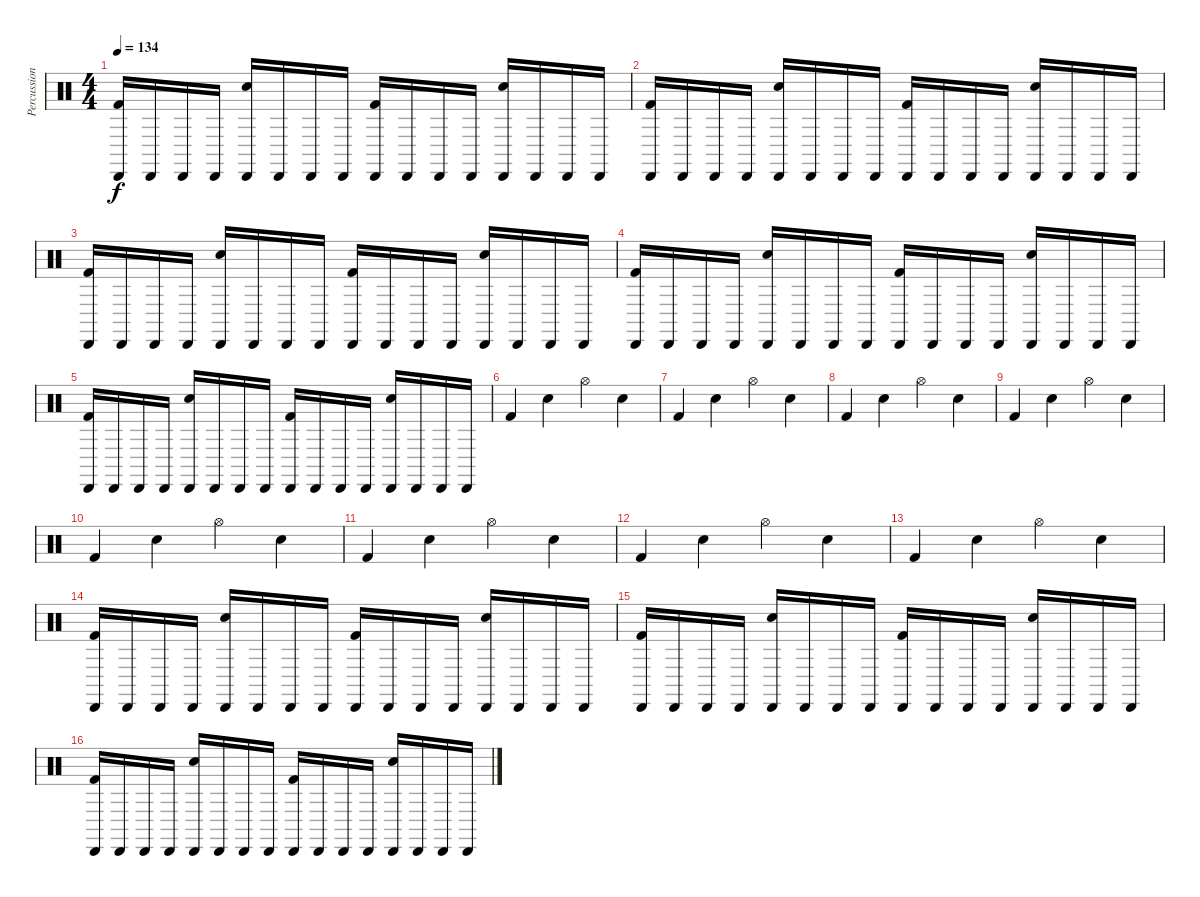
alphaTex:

\track ("Percussion" "Percussion") {instrument percussion}
\staff {score}
\articulation defaults
\ts (4 4)
\tempo 134
\clef neutral
\ks c
("Cabasa (hit)" "Kick (hit) 2").16{dy f} "Cabasa (hit)".16 "Cabasa (hit)".16 "Cabasa (hit)".16 ("Cabasa (hit)" "Snare (hit) 2").16 "Cabasa (hit)".16 "Cabasa (hit)".16 "Cabasa (hit)".16 ("Cabasa (hit)" "Kick (hit) 2").16 "Cabasa (hit)".16 "Cabasa (hit)".16 "Cabasa (hit)".16 ("Cabasa (hit)" "Snare (hit) 2").16 "Cabasa (hit)".16 "Cabasa (hit)".16 "Cabasa (hit)".16 |
("Cabasa (hit)" "Kick (hit) 2").16 "Cabasa (hit)".16 "Cabasa (hit)".16 "Cabasa (hit)".16 ("Cabasa (hit)" "Snare (hit) 2").16 "Cabasa (hit)".16 "Cabasa (hit)".16 "Cabasa (hit)".16 ("Cabasa (hit)" "Kick (hit) 2").16 "Cabasa (hit)".16 "Cabasa (hit)".16 "Cabasa (hit)".16 ("Cabasa (hit)" "Snare (hit) 2").16 "Cabasa (hit)".16 "Cabasa (hit)".16 "Cabasa (hit)".16 |
("Cabasa (hit)" "Kick (hit) 2").16 "Cabasa (hit)".16 "Cabasa (hit)".16 "Cabasa (hit)".16 ("Cabasa (hit)" "Snare (hit) 2").16 "Cabasa (hit)".16 "Cabasa (hit)".16 "Cabasa (hit)".16 ("Cabasa (hit)" "Kick (hit) 2").16 "Cabasa (hit)".16 "Cabasa (hit)".16 "Cabasa (hit)".16 ("Cabasa (hit)" "Snare (hit) 2").16 "Cabasa (hit)".16 "Cabasa (hit)".16 "Cabasa (hit)".16 |
("Cabasa (hit)" "Kick (hit) 2").16 "Cabasa (hit)".16 "Cabasa (hit)".16 "Cabasa (hit)".16 ("Cabasa (hit)" "Snare (hit) 2").16 "Cabasa (hit)".16 "Cabasa (hit)".16 "Cabasa (hit)".16 ("Cabasa (hit)" "Kick (hit) 2").16 "Cabasa (hit)".16 "Cabasa (hit)".16 "Cabasa (hit)".16 ("Cabasa (hit)" "Snare (hit) 2").16 "Cabasa (hit)".16 "Cabasa (hit)".16 "Cabasa (hit)".16 |
("Cabasa (hit)" "Kick (hit) 2").16 "Cabasa (hit)".16 "Cabasa (hit)".16 "Cabasa (hit)".16 ("Cabasa (hit)" "Snare (hit) 2").16 "Cabasa (hit)".16 "Cabasa (hit)".16 "Cabasa (hit)".16 ("Cabasa (hit)" "Kick (hit) 2").16 "Cabasa (hit)".16 "Cabasa (hit)".16 "Cabasa (hit)".16 ("Cabasa (hit)" "Snare (hit) 2").16 "Cabasa (hit)".16 "Cabasa (hit)".16 "Cabasa (hit)".16 |
"Kick (hit) 2".4 "Snare (hit) 2".4 "Hi-Hat (open)".4 "Snare (hit) 2".4 |
"Kick (hit) 2".4 "Snare (hit) 2".4 "Hi-Hat (open)".4 "Snare (hit) 2".4 |
"Kick (hit) 2".4 "Snare (hit) 2".4 "Hi-Hat (open)".4 "Snare (hit) 2".4 |
"Kick (hit) 2".4 "Snare (hit) 2".4 "Hi-Hat (open)".4 "Snare (hit) 2".4 |
"Kick (hit) 2".4 "Snare (hit) 2".4 "Hi-Hat (open)".4 "Snare (hit) 2".4 |
"Kick (hit) 2".4 "Snare (hit) 2".4 "Hi-Hat (open)".4 "Snare (hit) 2".4 |
"Kick (hit) 2".4 "Snare (hit) 2".4 "Hi-Hat (open)".4 "Snare (hit) 2".4 |
"Kick (hit) 2".4 "Snare (hit) 2".4 "Hi-Hat (open)".4 "Snare (hit) 2".4 |
("Cabasa (hit)" "Kick (hit) 2").16 "Cabasa (hit)".16 "Cabasa (hit)".16 "Cabasa (hit)".16 ("Cabasa (hit)" "Snare (hit) 2").16 "Cabasa (hit)".16 "Cabasa (hit)".16 "Cabasa (hit)".16 ("Cabasa (hit)" "Kick (hit) 2").16 "Cabasa (hit)".16 "Cabasa (hit)".16 "Cabasa (hit)".16 ("Cabasa (hit)" "Snare (hit) 2").16 "Cabasa (hit)".16 "Cabasa (hit)".16 "Cabasa (hit)".16 |
("Cabasa (hit)" "Kick (hit) 2").16 "Cabasa (hit)".16 "Cabasa (hit)".16 "Cabasa (hit)".16 ("Cabasa (hit)" "Snare (hit) 2").16 "Cabasa (hit)".16 "Cabasa (hit)".16 "Cabasa (hit)".16 ("Cabasa (hit)" "Kick (hit) 2").16 "Cabasa (hit)".16 "Cabasa (hit)".16 "Cabasa (hit)".16 ("Cabasa (hit)" "Snare (hit) 2").16 "Cabasa (hit)".16 "Cabasa (hit)".16 "Cabasa (hit)".16 |
("Cabasa (hit)" "Kick (hit) 2").16 "Cabasa (hit)".16 "Cabasa (hit)".16 "Cabasa (hit)".16 ("Cabasa (hit)" "Snare (hit) 2").16 "Cabasa (hit)".16 "Cabasa (hit)".16 "Cabasa (hit)".16 ("Cabasa (hit)" "Kick (hit) 2").16 "Cabasa (hit)".16 "Cabasa (hit)".16 "Cabasa (hit)".16 ("Cabasa (hit)" "Snare (hit) 2").16 "Cabasa (hit)".16 "Cabasa (hit)".16 "Cabasa (hit)".16
